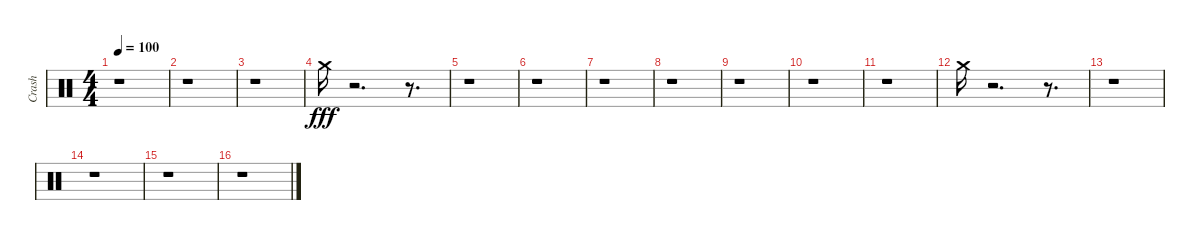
\track ("Crash" "Crash") {instrument percussion}
\staff {score}
\articulation defaults
\ts (4 4)
\tempo 100
\clef neutral
\ks c
r.1{dy fff} |
r.1 |
r.1 |
"Crash medium (hit)".16 r.2{d} r.8{d} |
r.1 |
r.1 |
r.1 |
r.1 |
r.1 |
r.1 |
r.1 |
"Crash medium (hit)".16 r.2{d} r.8{d} |
r.1 |
r.1 |
r.1 |
r.1
